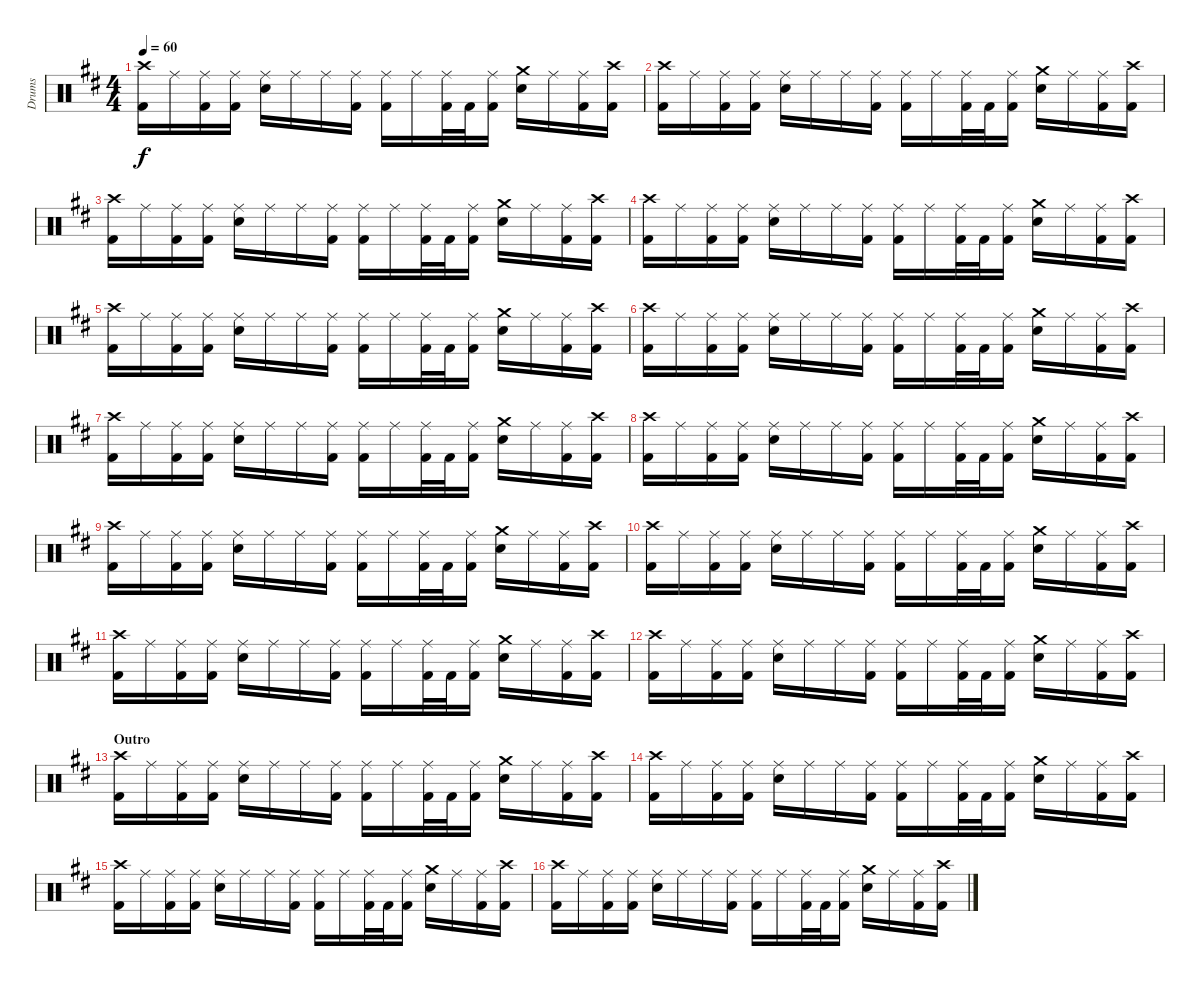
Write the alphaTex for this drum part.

\track ("Drums" "Drums") {instrument percussion}
\staff {score}
\articulation defaults
\ts (4 4)
\tempo 60
\clef neutral
\ks bminor
("Crash high (hit)" "Kick (hit) 2").16{dy f} "Ride (middle)".16 ("Ride (middle)" "Kick (hit) 2").16 ("Ride (middle)" "Kick (hit) 2").16 ("Ride (middle)" "Snare (hit) 2").16 "Ride (middle)".16 "Ride (middle)".16 ("Ride (middle)" "Kick (hit) 2").16 ("Ride (middle)" "Kick (hit) 2").16 "Ride (middle)".16 ("Ride (middle)" "Kick (hit) 2").32 "Kick (hit) 2".32 ("Ride (middle)" "Kick (hit) 2").16 ("Crash medium (hit)" "Snare (hit) 2").16 "Ride (middle)".16 ("Ride (middle)" "Kick (hit) 2").16 ("Crash high (hit)" "Kick (hit) 2").16 |
("Crash high (hit)" "Kick (hit) 2").16 "Ride (middle)".16 ("Ride (middle)" "Kick (hit) 2").16 ("Ride (middle)" "Kick (hit) 2").16 ("Ride (middle)" "Snare (hit) 2").16 "Ride (middle)".16 "Ride (middle)".16 ("Ride (middle)" "Kick (hit) 2").16 ("Ride (middle)" "Kick (hit) 2").16 "Ride (middle)".16 ("Ride (middle)" "Kick (hit) 2").32 "Kick (hit) 2".32 ("Ride (middle)" "Kick (hit) 2").16 ("Crash medium (hit)" "Snare (hit) 2").16 "Ride (middle)".16 ("Ride (middle)" "Kick (hit) 2").16 ("Crash high (hit)" "Kick (hit) 2").16 |
("Crash high (hit)" "Kick (hit) 2").16 "Ride (middle)".16 ("Ride (middle)" "Kick (hit) 2").16 ("Ride (middle)" "Kick (hit) 2").16 ("Ride (middle)" "Snare (hit) 2").16 "Ride (middle)".16 "Ride (middle)".16 ("Ride (middle)" "Kick (hit) 2").16 ("Ride (middle)" "Kick (hit) 2").16 "Ride (middle)".16 ("Ride (middle)" "Kick (hit) 2").32 "Kick (hit) 2".32 ("Ride (middle)" "Kick (hit) 2").16 ("Crash medium (hit)" "Snare (hit) 2").16 "Ride (middle)".16 ("Ride (middle)" "Kick (hit) 2").16 ("Crash high (hit)" "Kick (hit) 2").16 |
("Crash high (hit)" "Kick (hit) 2").16 "Ride (middle)".16 ("Ride (middle)" "Kick (hit) 2").16 ("Ride (middle)" "Kick (hit) 2").16 ("Ride (middle)" "Snare (hit) 2").16 "Ride (middle)".16 "Ride (middle)".16 ("Ride (middle)" "Kick (hit) 2").16 ("Ride (middle)" "Kick (hit) 2").16 "Ride (middle)".16 ("Ride (middle)" "Kick (hit) 2").32 "Kick (hit) 2".32 ("Ride (middle)" "Kick (hit) 2").16 ("Crash medium (hit)" "Snare (hit) 2").16 "Ride (middle)".16 ("Ride (middle)" "Kick (hit) 2").16 ("Crash high (hit)" "Kick (hit) 2").16 |
("Crash high (hit)" "Kick (hit) 2").16 "Ride (middle)".16 ("Ride (middle)" "Kick (hit) 2").16 ("Ride (middle)" "Kick (hit) 2").16 ("Ride (middle)" "Snare (hit) 2").16 "Ride (middle)".16 "Ride (middle)".16 ("Ride (middle)" "Kick (hit) 2").16 ("Ride (middle)" "Kick (hit) 2").16 "Ride (middle)".16 ("Ride (middle)" "Kick (hit) 2").32 "Kick (hit) 2".32 ("Ride (middle)" "Kick (hit) 2").16 ("Crash medium (hit)" "Snare (hit) 2").16 "Ride (middle)".16 ("Ride (middle)" "Kick (hit) 2").16 ("Crash high (hit)" "Kick (hit) 2").16 |
("Crash high (hit)" "Kick (hit) 2").16 "Ride (middle)".16 ("Ride (middle)" "Kick (hit) 2").16 ("Ride (middle)" "Kick (hit) 2").16 ("Ride (middle)" "Snare (hit) 2").16 "Ride (middle)".16 "Ride (middle)".16 ("Ride (middle)" "Kick (hit) 2").16 ("Ride (middle)" "Kick (hit) 2").16 "Ride (middle)".16 ("Ride (middle)" "Kick (hit) 2").32 "Kick (hit) 2".32 ("Ride (middle)" "Kick (hit) 2").16 ("Crash medium (hit)" "Snare (hit) 2").16 "Ride (middle)".16 ("Ride (middle)" "Kick (hit) 2").16 ("Crash high (hit)" "Kick (hit) 2").16 |
("Crash high (hit)" "Kick (hit) 2").16 "Ride (middle)".16 ("Ride (middle)" "Kick (hit) 2").16 ("Ride (middle)" "Kick (hit) 2").16 ("Ride (middle)" "Snare (hit) 2").16 "Ride (middle)".16 "Ride (middle)".16 ("Ride (middle)" "Kick (hit) 2").16 ("Ride (middle)" "Kick (hit) 2").16 "Ride (middle)".16 ("Ride (middle)" "Kick (hit) 2").32 "Kick (hit) 2".32 ("Ride (middle)" "Kick (hit) 2").16 ("Crash medium (hit)" "Snare (hit) 2").16 "Ride (middle)".16 ("Ride (middle)" "Kick (hit) 2").16 ("Crash high (hit)" "Kick (hit) 2").16 |
("Crash high (hit)" "Kick (hit) 2").16 "Ride (middle)".16 ("Ride (middle)" "Kick (hit) 2").16 ("Ride (middle)" "Kick (hit) 2").16 ("Ride (middle)" "Snare (hit) 2").16 "Ride (middle)".16 "Ride (middle)".16 ("Ride (middle)" "Kick (hit) 2").16 ("Ride (middle)" "Kick (hit) 2").16 "Ride (middle)".16 ("Ride (middle)" "Kick (hit) 2").32 "Kick (hit) 2".32 ("Ride (middle)" "Kick (hit) 2").16 ("Crash medium (hit)" "Snare (hit) 2").16 "Ride (middle)".16 ("Ride (middle)" "Kick (hit) 2").16 ("Crash high (hit)" "Kick (hit) 2").16 |
("Crash high (hit)" "Kick (hit) 2").16 "Ride (middle)".16 ("Ride (middle)" "Kick (hit) 2").16 ("Ride (middle)" "Kick (hit) 2").16 ("Ride (middle)" "Snare (hit) 2").16 "Ride (middle)".16 "Ride (middle)".16 ("Ride (middle)" "Kick (hit) 2").16 ("Ride (middle)" "Kick (hit) 2").16 "Ride (middle)".16 ("Ride (middle)" "Kick (hit) 2").32 "Kick (hit) 2".32 ("Ride (middle)" "Kick (hit) 2").16 ("Crash medium (hit)" "Snare (hit) 2").16 "Ride (middle)".16 ("Ride (middle)" "Kick (hit) 2").16 ("Crash high (hit)" "Kick (hit) 2").16 |
("Crash high (hit)" "Kick (hit) 2").16 "Ride (middle)".16 ("Ride (middle)" "Kick (hit) 2").16 ("Ride (middle)" "Kick (hit) 2").16 ("Ride (middle)" "Snare (hit) 2").16 "Ride (middle)".16 "Ride (middle)".16 ("Ride (middle)" "Kick (hit) 2").16 ("Ride (middle)" "Kick (hit) 2").16 "Ride (middle)".16 ("Ride (middle)" "Kick (hit) 2").32 "Kick (hit) 2".32 ("Ride (middle)" "Kick (hit) 2").16 ("Crash medium (hit)" "Snare (hit) 2").16 "Ride (middle)".16 ("Ride (middle)" "Kick (hit) 2").16 ("Crash high (hit)" "Kick (hit) 2").16 |
("Crash high (hit)" "Kick (hit) 2").16 "Ride (middle)".16 ("Ride (middle)" "Kick (hit) 2").16 ("Ride (middle)" "Kick (hit) 2").16 ("Ride (middle)" "Snare (hit) 2").16 "Ride (middle)".16 "Ride (middle)".16 ("Ride (middle)" "Kick (hit) 2").16 ("Ride (middle)" "Kick (hit) 2").16 "Ride (middle)".16 ("Ride (middle)" "Kick (hit) 2").32 "Kick (hit) 2".32 ("Ride (middle)" "Kick (hit) 2").16 ("Crash medium (hit)" "Snare (hit) 2").16 "Ride (middle)".16 ("Ride (middle)" "Kick (hit) 2").16 ("Crash high (hit)" "Kick (hit) 2").16 |
("Crash high (hit)" "Kick (hit) 2").16 "Ride (middle)".16 ("Ride (middle)" "Kick (hit) 2").16 ("Ride (middle)" "Kick (hit) 2").16 ("Ride (middle)" "Snare (hit) 2").16 "Ride (middle)".16 "Ride (middle)".16 ("Ride (middle)" "Kick (hit) 2").16 ("Ride (middle)" "Kick (hit) 2").16 "Ride (middle)".16 ("Ride (middle)" "Kick (hit) 2").32 "Kick (hit) 2".32 ("Ride (middle)" "Kick (hit) 2").16 ("Crash medium (hit)" "Snare (hit) 2").16 "Ride (middle)".16 ("Ride (middle)" "Kick (hit) 2").16 ("Crash high (hit)" "Kick (hit) 2").16 |
\section ("" "Outro")
("Crash high (hit)" "Kick (hit) 2").16 "Ride (middle)".16 ("Ride (middle)" "Kick (hit) 2").16 ("Ride (middle)" "Kick (hit) 2").16 ("Ride (middle)" "Snare (hit) 2").16 "Ride (middle)".16 "Ride (middle)".16 ("Ride (middle)" "Kick (hit) 2").16 ("Ride (middle)" "Kick (hit) 2").16 "Ride (middle)".16 ("Ride (middle)" "Kick (hit) 2").32 "Kick (hit) 2".32 ("Ride (middle)" "Kick (hit) 2").16 ("Crash medium (hit)" "Snare (hit) 2").16 "Ride (middle)".16 ("Ride (middle)" "Kick (hit) 2").16 ("Crash high (hit)" "Kick (hit) 2").16 |
("Crash high (hit)" "Kick (hit) 2").16 "Ride (middle)".16 ("Ride (middle)" "Kick (hit) 2").16 ("Ride (middle)" "Kick (hit) 2").16 ("Ride (middle)" "Snare (hit) 2").16 "Ride (middle)".16 "Ride (middle)".16 ("Ride (middle)" "Kick (hit) 2").16 ("Ride (middle)" "Kick (hit) 2").16 "Ride (middle)".16 ("Ride (middle)" "Kick (hit) 2").32 "Kick (hit) 2".32 ("Ride (middle)" "Kick (hit) 2").16 ("Crash medium (hit)" "Snare (hit) 2").16 "Ride (middle)".16 ("Ride (middle)" "Kick (hit) 2").16 ("Crash high (hit)" "Kick (hit) 2").16 |
("Crash high (hit)" "Kick (hit) 2").16 "Ride (middle)".16 ("Ride (middle)" "Kick (hit) 2").16 ("Ride (middle)" "Kick (hit) 2").16 ("Ride (middle)" "Snare (hit) 2").16 "Ride (middle)".16 "Ride (middle)".16 ("Ride (middle)" "Kick (hit) 2").16 ("Ride (middle)" "Kick (hit) 2").16 "Ride (middle)".16 ("Ride (middle)" "Kick (hit) 2").32 "Kick (hit) 2".32 ("Ride (middle)" "Kick (hit) 2").16 ("Crash medium (hit)" "Snare (hit) 2").16 "Ride (middle)".16 ("Ride (middle)" "Kick (hit) 2").16 ("Crash high (hit)" "Kick (hit) 2").16 |
("Crash high (hit)" "Kick (hit) 2").16 "Ride (middle)".16 ("Ride (middle)" "Kick (hit) 2").16 ("Ride (middle)" "Kick (hit) 2").16 ("Ride (middle)" "Snare (hit) 2").16 "Ride (middle)".16 "Ride (middle)".16 ("Ride (middle)" "Kick (hit) 2").16 ("Ride (middle)" "Kick (hit) 2").16 "Ride (middle)".16 ("Ride (middle)" "Kick (hit) 2").32 "Kick (hit) 2".32 ("Ride (middle)" "Kick (hit) 2").16 ("Crash medium (hit)" "Snare (hit) 2").16 "Ride (middle)".16 ("Ride (middle)" "Kick (hit) 2").16 ("Crash high (hit)" "Kick (hit) 2").16
